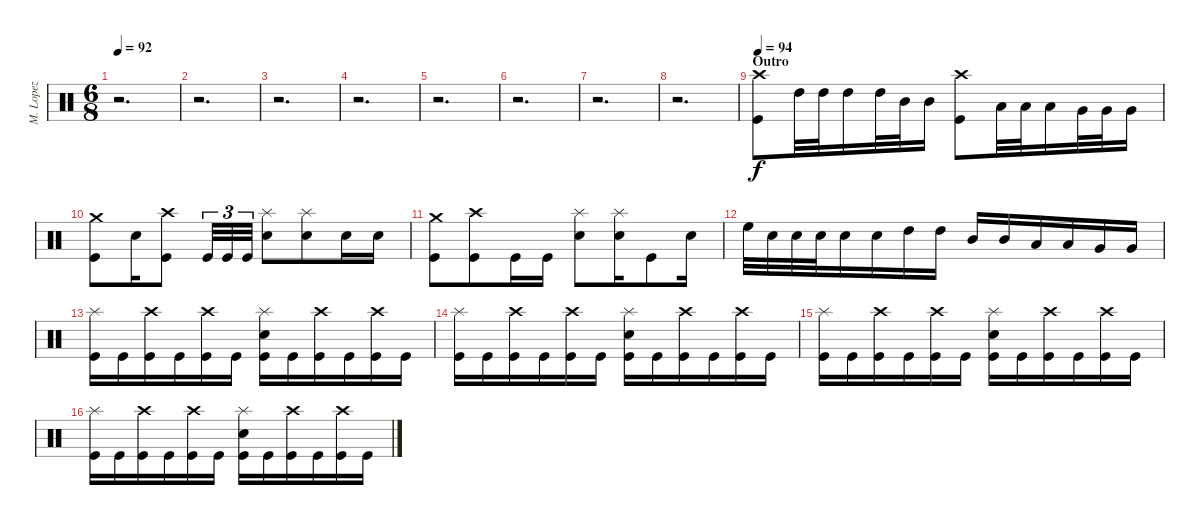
\track ("M. Lopez" "M. Lopez") {instrument percussion}
\staff {score}
\articulation defaults
\ts (6 8)
\tempo 92
\clef neutral
\ks c
r.2{d dy mp} |
r.2{d} |
r.2{d} |
r.2{d} |
r.2{d} |
r.2{d} |
r.2{d} |
r.2{d} |
\section ("" "Outro")
\tempo 94
("Crash high (hit)" "Kick (hit)").8{dy f} "High Tom (hit)".32 "High Tom (hit)".32 "High Tom (hit)".16 "High Tom (hit)".32 "Mid Tom (hit)".32 "Mid Tom (hit)".16 ("Crash high (hit)" "Kick (hit)").8 "Low Tom (hit)".32 "Low Tom (hit)".32 "Low Tom (hit)".16 "Very Low Tom (hit)".32 "Very Low Tom (hit)".32 "Very Low Tom (hit)".16 |
("Crash medium (hit)" "Kick (hit)").8 "Electric Snare (hit)".16 ("Crash high (hit)" "Kick (hit)").8 "Kick (hit)".32{tu (3 2)} "Kick (hit)".32{tu (3 2)} "Kick (hit)".32{tu (3 2)} ("Splash (hit)" "Electric Snare (hit)").8 ("Splash (hit)" "Electric Snare (hit)").8 "Electric Snare (hit)".16 "Electric Snare (hit)".16 |
("Crash medium (hit)" "Kick (hit)").8 ("Crash high (hit)" "Kick (hit)").8 "Kick (hit)".16 "Kick (hit)".16 ("Splash (hit)" "Electric Snare (hit)").8 ("Splash (hit)" "Electric Snare (hit)").16 "Kick (hit)".8 "Electric Snare (hit)".16 |
"High Floor Tom (hit)".32 "Electric Snare (hit)".32 "Electric Snare (hit)".32 "Electric Snare (hit)".32 "Electric Snare (hit)".16 "Electric Snare (hit)".16 "High Tom (hit)".16 "High Tom (hit)".16 "Mid Tom (hit)".16 "Mid Tom (hit)".16 "Low Tom (hit)".16 "Low Tom (hit)".16 "Very Low Tom (hit)".16 "Very Low Tom (hit)".16 |
("Splash (hit)" "Kick (hit)").16 "Kick (hit)".16 ("Crash high (hit)" "Kick (hit)").16 "Kick (hit)".16 ("Crash high (hit)" "Kick (hit)").16 "Kick (hit)".16 ("Splash (hit)" "Electric Snare (hit)" "Kick (hit)").16 "Kick (hit)".16 ("Crash high (hit)" "Kick (hit)").16 "Kick (hit)".16 ("Crash high (hit)" "Kick (hit)").16 "Kick (hit)".16 |
("Splash (hit)" "Kick (hit)").16 "Kick (hit)".16 ("Crash high (hit)" "Kick (hit)").16 "Kick (hit)".16 ("Crash high (hit)" "Kick (hit)").16 "Kick (hit)".16 ("Splash (hit)" "Electric Snare (hit)" "Kick (hit)").16 "Kick (hit)".16 ("Crash high (hit)" "Kick (hit)").16 "Kick (hit)".16 ("Crash high (hit)" "Kick (hit)").16 "Kick (hit)".16 |
("Splash (hit)" "Kick (hit)").16 "Kick (hit)".16 ("Crash high (hit)" "Kick (hit)").16 "Kick (hit)".16 ("Crash high (hit)" "Kick (hit)").16 "Kick (hit)".16 ("Splash (hit)" "Electric Snare (hit)" "Kick (hit)").16 "Kick (hit)".16 ("Crash high (hit)" "Kick (hit)").16 "Kick (hit)".16 ("Crash high (hit)" "Kick (hit)").16 "Kick (hit)".16 |
("Splash (hit)" "Kick (hit)").16 "Kick (hit)".16 ("Crash high (hit)" "Kick (hit)").16 "Kick (hit)".16 ("Crash high (hit)" "Kick (hit)").16 "Kick (hit)".16 ("Splash (hit)" "Electric Snare (hit)" "Kick (hit)").16 "Kick (hit)".16 ("Crash high (hit)" "Kick (hit)").16 "Kick (hit)".16 ("Crash high (hit)" "Kick (hit)").16 "Kick (hit)".16
